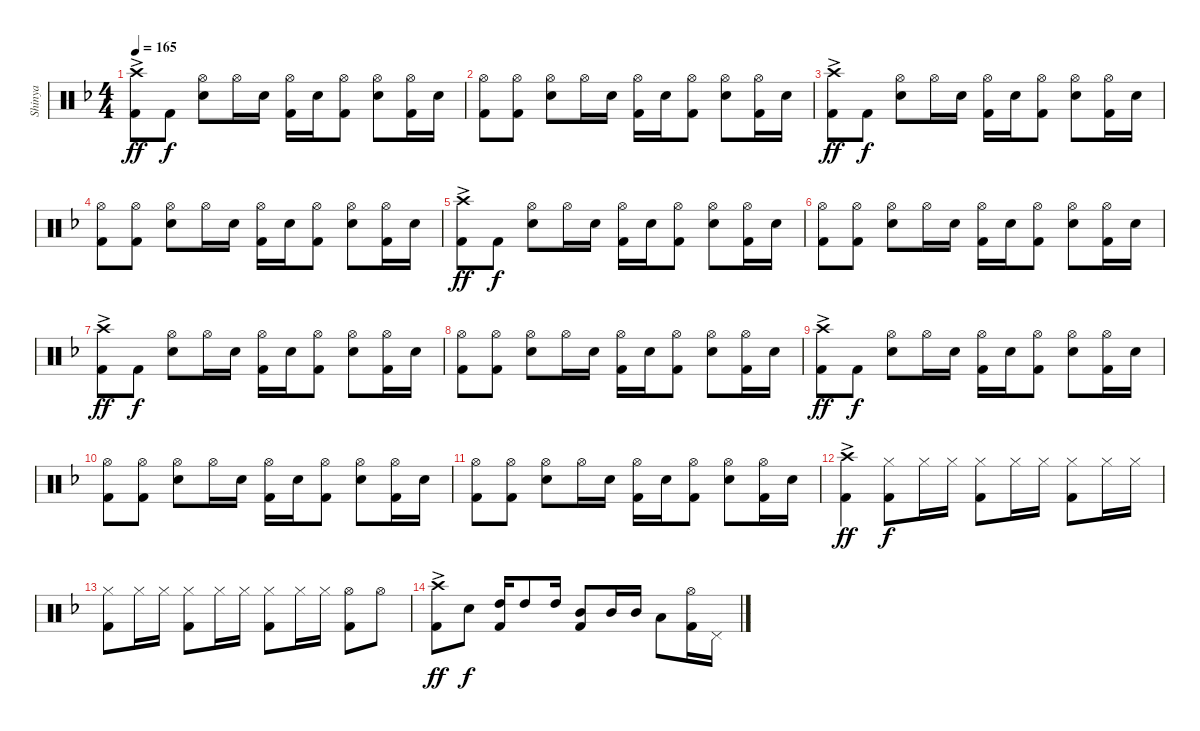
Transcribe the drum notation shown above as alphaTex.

\track ("Shinya" "Shinya") {instrument percussion}
\staff {score}
\articulation defaults
\ts (4 4)
\tempo 165
\clef neutral
\ks dminor
("Crash high (hit)"{ac} "Kick (hit) 2").8{dy ff} "Kick (hit) 2".8{dy f} ("Hi-Hat (open)" "Snare (hit) 2").8 "Hi-Hat (open)".16 "Snare (hit) 2".16 ("Hi-Hat (open)" "Kick (hit) 2").16 "Snare (hit) 2".16 ("Hi-Hat (open)" "Kick (hit) 2").8 ("Hi-Hat (open)" "Snare (hit) 2").8 ("Hi-Hat (open)" "Kick (hit) 2").16 "Snare (hit) 2".16 |
("Hi-Hat (open)" "Kick (hit) 2").8 ("Hi-Hat (open)" "Kick (hit) 2").8 ("Hi-Hat (open)" "Snare (hit) 2").8 "Hi-Hat (open)".16 "Snare (hit) 2".16 ("Hi-Hat (open)" "Kick (hit) 2").16 "Snare (hit) 2".16 ("Hi-Hat (open)" "Kick (hit) 2").8 ("Hi-Hat (open)" "Snare (hit) 2").8 ("Hi-Hat (open)" "Kick (hit) 2").16 "Snare (hit) 2".16 |
("Crash high (hit)"{ac} "Kick (hit) 2").8{dy ff} "Kick (hit) 2".8{dy f} ("Hi-Hat (open)" "Snare (hit) 2").8 "Hi-Hat (open)".16 "Snare (hit) 2".16 ("Hi-Hat (open)" "Kick (hit) 2").16 "Snare (hit) 2".16 ("Hi-Hat (open)" "Kick (hit) 2").8 ("Hi-Hat (open)" "Snare (hit) 2").8 ("Hi-Hat (open)" "Kick (hit) 2").16 "Snare (hit) 2".16 |
("Hi-Hat (open)" "Kick (hit) 2").8 ("Hi-Hat (open)" "Kick (hit) 2").8 ("Hi-Hat (open)" "Snare (hit) 2").8 "Hi-Hat (open)".16 "Snare (hit) 2".16 ("Hi-Hat (open)" "Kick (hit) 2").16 "Snare (hit) 2".16 ("Hi-Hat (open)" "Kick (hit) 2").8 ("Hi-Hat (open)" "Snare (hit) 2").8 ("Hi-Hat (open)" "Kick (hit) 2").16 "Snare (hit) 2".16 |
("Crash high (hit)"{ac} "Kick (hit) 2").8{dy ff} "Kick (hit) 2".8{dy f} ("Hi-Hat (open)" "Snare (hit) 2").8 "Hi-Hat (open)".16 "Snare (hit) 2".16 ("Hi-Hat (open)" "Kick (hit) 2").16 "Snare (hit) 2".16 ("Hi-Hat (open)" "Kick (hit) 2").8 ("Hi-Hat (open)" "Snare (hit) 2").8 ("Hi-Hat (open)" "Kick (hit) 2").16 "Snare (hit) 2".16 |
("Hi-Hat (open)" "Kick (hit) 2").8 ("Hi-Hat (open)" "Kick (hit) 2").8 ("Hi-Hat (open)" "Snare (hit) 2").8 "Hi-Hat (open)".16 "Snare (hit) 2".16 ("Hi-Hat (open)" "Kick (hit) 2").16 "Snare (hit) 2".16 ("Hi-Hat (open)" "Kick (hit) 2").8 ("Hi-Hat (open)" "Snare (hit) 2").8 ("Hi-Hat (open)" "Kick (hit) 2").16 "Snare (hit) 2".16 |
("Crash high (hit)"{ac} "Kick (hit) 2").8{dy ff} "Kick (hit) 2".8{dy f} ("Hi-Hat (open)" "Snare (hit) 2").8 "Hi-Hat (open)".16 "Snare (hit) 2".16 ("Hi-Hat (open)" "Kick (hit) 2").16 "Snare (hit) 2".16 ("Hi-Hat (open)" "Kick (hit) 2").8 ("Hi-Hat (open)" "Snare (hit) 2").8 ("Hi-Hat (open)" "Kick (hit) 2").16 "Snare (hit) 2".16 |
("Hi-Hat (open)" "Kick (hit) 2").8 ("Hi-Hat (open)" "Kick (hit) 2").8 ("Hi-Hat (open)" "Snare (hit) 2").8 "Hi-Hat (open)".16 "Snare (hit) 2".16 ("Hi-Hat (open)" "Kick (hit) 2").16 "Snare (hit) 2".16 ("Hi-Hat (open)" "Kick (hit) 2").8 ("Hi-Hat (open)" "Snare (hit) 2").8 ("Hi-Hat (open)" "Kick (hit) 2").16 "Snare (hit) 2".16 |
("Crash high (hit)"{ac} "Kick (hit) 2").8{dy ff} "Kick (hit) 2".8{dy f} ("Hi-Hat (open)" "Snare (hit) 2").8 "Hi-Hat (open)".16 "Snare (hit) 2".16 ("Hi-Hat (open)" "Kick (hit) 2").16 "Snare (hit) 2".16 ("Hi-Hat (open)" "Kick (hit) 2").8 ("Hi-Hat (open)" "Snare (hit) 2").8 ("Hi-Hat (open)" "Kick (hit) 2").16 "Snare (hit) 2".16 |
("Hi-Hat (open)" "Kick (hit) 2").8 ("Hi-Hat (open)" "Kick (hit) 2").8 ("Hi-Hat (open)" "Snare (hit) 2").8 "Hi-Hat (open)".16 "Snare (hit) 2".16 ("Hi-Hat (open)" "Kick (hit) 2").16 "Snare (hit) 2".16 ("Hi-Hat (open)" "Kick (hit) 2").8 ("Hi-Hat (open)" "Snare (hit) 2").8 ("Hi-Hat (open)" "Kick (hit) 2").16 "Snare (hit) 2".16 |
("Hi-Hat (open)" "Kick (hit) 2").8 ("Hi-Hat (open)" "Kick (hit) 2").8 ("Hi-Hat (open)" "Snare (hit) 2").8 "Hi-Hat (open)".16 "Snare (hit) 2".16 ("Hi-Hat (open)" "Kick (hit) 2").16 "Snare (hit) 2".16 ("Hi-Hat (open)" "Kick (hit) 2").8 ("Hi-Hat (open)" "Snare (hit) 2").8 ("Hi-Hat (open)" "Kick (hit) 2").16 "Snare (hit) 2".16 |
("Crash high (hit)"{ac} "Kick (hit) 2").4{dy ff} ("Hi-Hat (closed)" "Kick (hit) 2").8{dy f} "Hi-Hat (closed)".16 "Hi-Hat (closed)".16 ("Hi-Hat (closed)" "Kick (hit) 2").8 "Hi-Hat (closed)".16 "Hi-Hat (closed)".16 ("Hi-Hat (closed)" "Kick (hit) 2").8 "Hi-Hat (closed)".16 "Hi-Hat (closed)".16 |
("Hi-Hat (closed)" "Kick (hit) 2").8 "Hi-Hat (closed)".16 "Hi-Hat (closed)".16 ("Hi-Hat (closed)" "Kick (hit) 2").8 "Hi-Hat (closed)".16 "Hi-Hat (closed)".16 ("Hi-Hat (closed)" "Kick (hit) 2").8 "Hi-Hat (closed)".16 "Hi-Hat (closed)".16 ("Hi-Hat (open)" "Kick (hit) 2").8 "Hi-Hat (open)".8 |
("Crash high (hit)"{ac} "Kick (hit) 2").8{dy ff} "Snare (hit) 2".8{dy f} ("High Tom (hit)" "Kick (hit) 2").16 "High Tom (hit)".8 "High Tom (hit)".16 ("Mid Tom (hit)" "Kick (hit) 2").8 "Mid Tom (hit)".16 "Mid Tom (hit)".16 "Low Tom (hit)".8 ("Hi-Hat (open)" "Kick (hit) 2").16 "Pedal Hi-Hat (hit)".16
